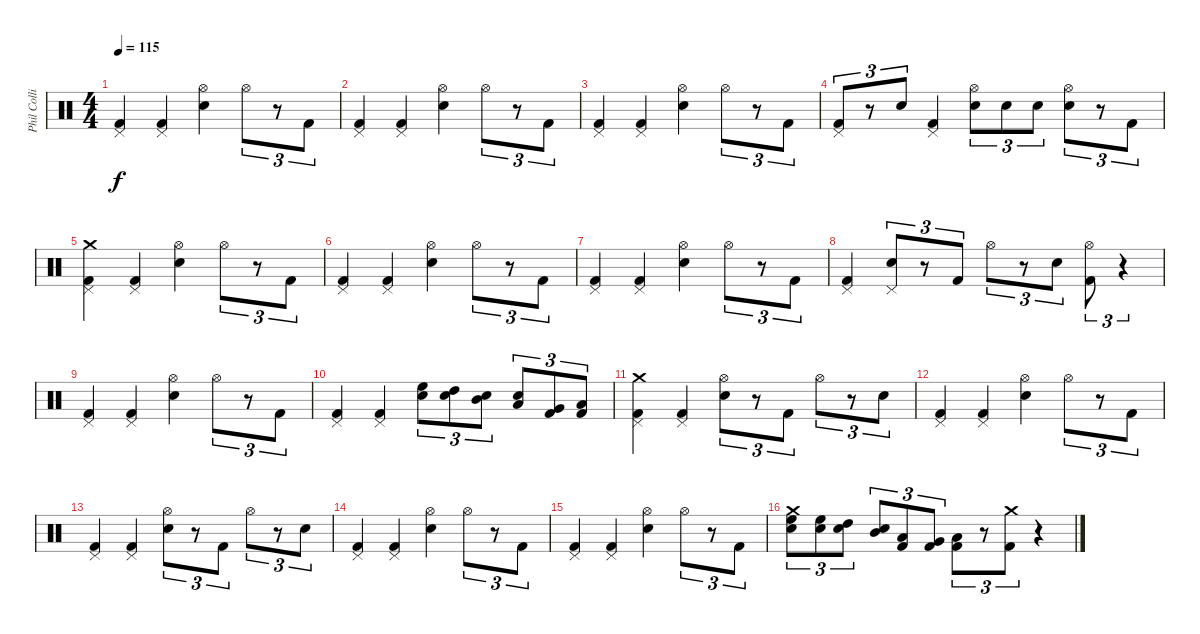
\track ("Phil Collins (drums)" "Phil Colli") {instrument percussion}
\staff {score}
\articulation defaults
\ts (4 4)
\tempo 115
\clef neutral
\ks c
("Pedal Hi-Hat (hit)" "Kick (hit) 2").4{dy f} ("Pedal Hi-Hat (hit)" "Kick (hit) 2").4 ("Hi-Hat (open)" "Electric Snare (hit)").4 "Hi-Hat (open)".8{tu (3 2)} r.8{tu (3 2)} "Kick (hit) 2".8{tu (3 2)} |
("Pedal Hi-Hat (hit)" "Kick (hit) 2").4 ("Pedal Hi-Hat (hit)" "Kick (hit) 2").4 ("Hi-Hat (open)" "Electric Snare (hit)").4 "Hi-Hat (open)".8{tu (3 2)} r.8{tu (3 2)} "Kick (hit) 2".8{tu (3 2)} |
("Pedal Hi-Hat (hit)" "Kick (hit) 2").4 ("Pedal Hi-Hat (hit)" "Kick (hit) 2").4 ("Hi-Hat (open)" "Electric Snare (hit)").4 "Hi-Hat (open)".8{tu (3 2)} r.8{tu (3 2)} "Kick (hit) 2".8{tu (3 2)} |
("Pedal Hi-Hat (hit)" "Kick (hit) 2").8{tu (3 2)} r.8{tu (3 2)} "Electric Snare (hit)".8{tu (3 2)} ("Pedal Hi-Hat (hit)" "Kick (hit) 2").4 ("Hi-Hat (open)" "Electric Snare (hit)").8{tu (3 2)} "Electric Snare (hit)".8{tu (3 2)} "Electric Snare (hit)".8{tu (3 2)} ("Hi-Hat (open)" "Electric Snare (hit)").8{tu (3 2)} r.8{tu (3 2)} "Kick (hit) 2".8{tu (3 2)} |
("Crash medium (hit)" "Pedal Hi-Hat (hit)" "Kick (hit) 2").4 ("Pedal Hi-Hat (hit)" "Kick (hit) 2").4 ("Hi-Hat (open)" "Electric Snare (hit)").4 "Hi-Hat (open)".8{tu (3 2)} r.8{tu (3 2)} "Kick (hit) 2".8{tu (3 2)} |
("Pedal Hi-Hat (hit)" "Kick (hit) 2").4 ("Pedal Hi-Hat (hit)" "Kick (hit) 2").4 ("Hi-Hat (open)" "Electric Snare (hit)").4 "Hi-Hat (open)".8{tu (3 2)} r.8{tu (3 2)} "Kick (hit) 2".8{tu (3 2)} |
("Pedal Hi-Hat (hit)" "Kick (hit) 2").4 ("Pedal Hi-Hat (hit)" "Kick (hit) 2").4 ("Hi-Hat (open)" "Electric Snare (hit)").4 "Hi-Hat (open)".8{tu (3 2)} r.8{tu (3 2)} "Kick (hit) 2".8{tu (3 2)} |
("Pedal Hi-Hat (hit)" "Kick (hit) 2").4 ("Pedal Hi-Hat (hit)" "Electric Snare (hit)").8{tu (3 2)} r.8{tu (3 2)} "Kick (hit) 2".8{tu (3 2)} "Hi-Hat (open)".8{tu (3 2)} r.8{tu (3 2)} "Electric Snare (hit)".8{tu (3 2)} ("Hi-Hat (open)" "Kick (hit) 2").8{tu (3 2)} r.4{tu (3 2)} |
("Pedal Hi-Hat (hit)" "Kick (hit) 2").4 ("Pedal Hi-Hat (hit)" "Kick (hit) 2").4 ("Hi-Hat (open)" "Electric Snare (hit)").4 "Hi-Hat (open)".8{tu (3 2)} r.8{tu (3 2)} "Kick (hit) 2".8{tu (3 2)} |
("Pedal Hi-Hat (hit)" "Kick (hit) 2").4 ("Pedal Hi-Hat (hit)" "Kick (hit) 2").4 ("High Floor Tom (hit)" "Electric Snare (hit)").8{tu (3 2)} ("High Tom (hit)" "Electric Snare (hit)").8{tu (3 2)} ("Mid Tom (hit)" "Electric Snare (hit)").8{tu (3 2)} ("Low Tom (hit)" "Electric Snare (hit)").8{tu (3 2)} ("Very Low Tom (hit)" "Kick (hit) 2").8{tu (3 2)} ("Low Floor Tom (hit)" "Kick (hit) 2").8{tu (3 2)} |
("Crash medium (hit)" "Pedal Hi-Hat (hit)" "Kick (hit) 2").4 ("Pedal Hi-Hat (hit)" "Kick (hit) 2").4 ("Hi-Hat (open)" "Electric Snare (hit)").8{tu (3 2)} r.8{tu (3 2)} "Kick (hit) 2".8{tu (3 2)} "Hi-Hat (open)".8{tu (3 2)} r.8{tu (3 2)} "Electric Snare (hit)".8{tu (3 2)} |
("Pedal Hi-Hat (hit)" "Kick (hit) 2").4 ("Pedal Hi-Hat (hit)" "Kick (hit) 2").4 ("Hi-Hat (open)" "Electric Snare (hit)").4 "Hi-Hat (open)".8{tu (3 2)} r.8{tu (3 2)} "Kick (hit) 2".8{tu (3 2)} |
("Pedal Hi-Hat (hit)" "Kick (hit) 2").4 ("Pedal Hi-Hat (hit)" "Kick (hit) 2").4 ("Hi-Hat (open)" "Electric Snare (hit)").8{tu (3 2)} r.8{tu (3 2)} "Kick (hit) 2".8{tu (3 2)} "Hi-Hat (open)".8{tu (3 2)} r.8{tu (3 2)} "Electric Snare (hit)".8{tu (3 2)} |
("Pedal Hi-Hat (hit)" "Kick (hit) 2").4 ("Pedal Hi-Hat (hit)" "Kick (hit) 2").4 ("Hi-Hat (open)" "Electric Snare (hit)").4 "Hi-Hat (open)".8{tu (3 2)} r.8{tu (3 2)} "Kick (hit) 2".8{tu (3 2)} |
("Pedal Hi-Hat (hit)" "Kick (hit) 2").4 ("Pedal Hi-Hat (hit)" "Kick (hit) 2").4 ("Hi-Hat (open)" "Electric Snare (hit)").4 "Hi-Hat (open)".8{tu (3 2)} r.8{tu (3 2)} "Kick (hit) 2".8{tu (3 2)} |
("Crash medium (hit)" "High Floor Tom (hit)" "Electric Snare (hit)").8{tu (3 2)} ("High Floor Tom (hit)" "Electric Snare (hit)").8{tu (3 2)} ("High Tom (hit)" "Electric Snare (hit)").8{tu (3 2)} ("Mid Tom (hit)" "Electric Snare (hit)").8{tu (3 2)} ("Low Tom (hit)" "Kick (hit) 2").8{tu (3 2)} ("Very Low Tom (hit)" "Kick (hit) 2").8{tu (3 2)} ("Low Floor Tom (hit)" "Kick (hit) 2").8{tu (3 2)} r.8{tu (3 2)} ("Crash medium (hit)" "Kick (hit) 2").8{tu (3 2)} r.4
